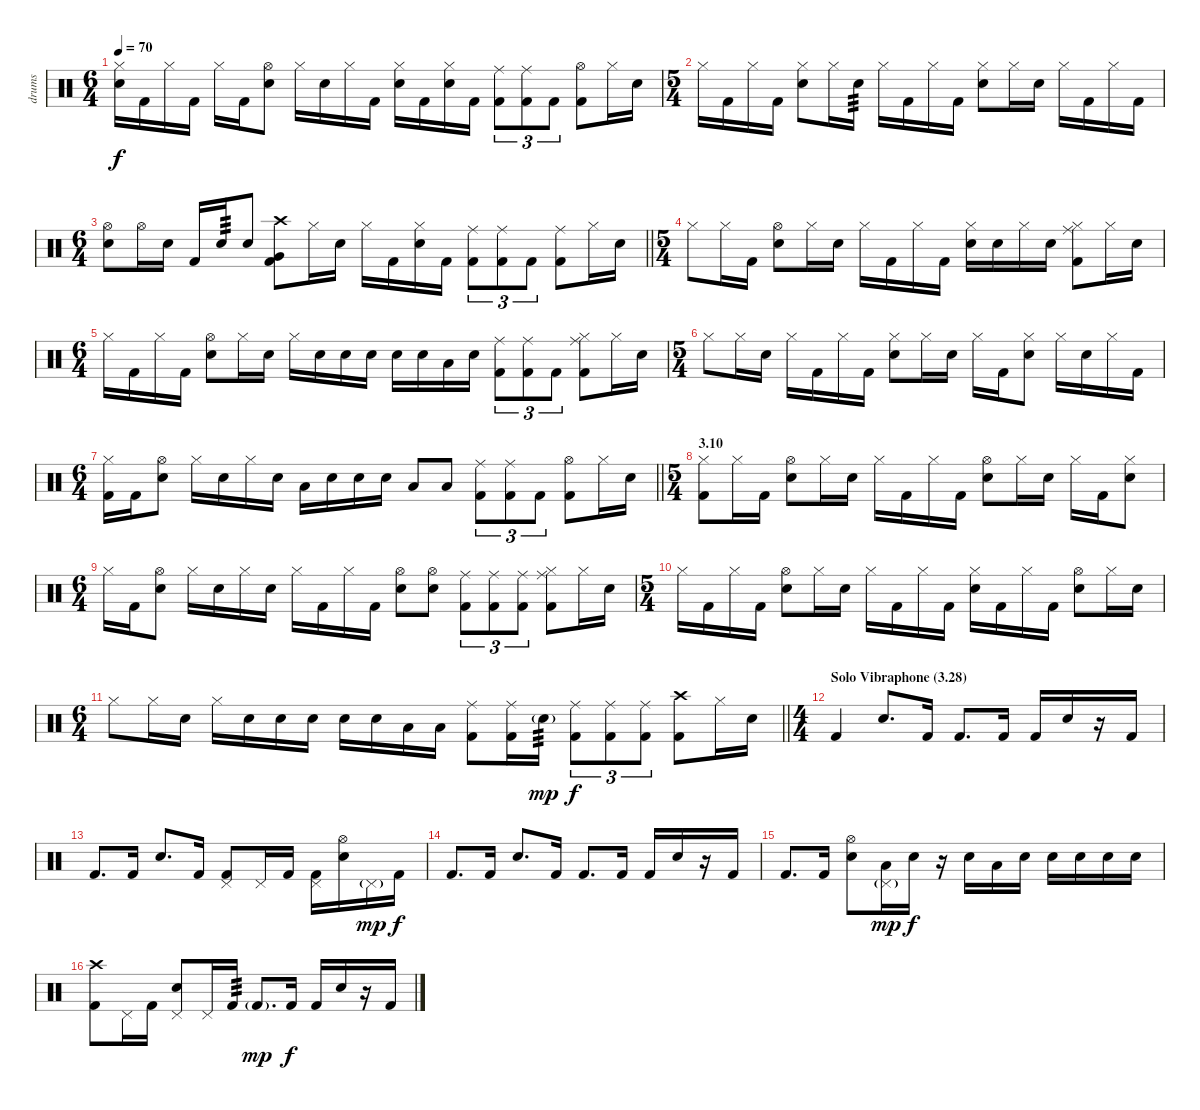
\track ("drums" "drums") {instrument percussion}
\staff {score}
\articulation defaults
\ts (6 4)
\tempo 70
\clef neutral
\ks c
("Hi-Hat (closed)" "Electric Snare (hit)").16{dy f} "Kick (hit) 2".16 "Hi-Hat (closed)".16 "Kick (hit) 2".16 "Hi-Hat (closed)".16 "Kick (hit) 2".16 ("Hi-Hat (open)" "Electric Snare (hit)").8 "Hi-Hat (closed)".16 "Electric Snare (hit)".16 "Hi-Hat (closed)".16 "Kick (hit) 2".16 ("Hi-Hat (closed)" "Electric Snare (hit)").16 "Kick (hit) 2".16 ("Hi-Hat (closed)" "Electric Snare (hit)").16 "Kick (hit) 2".16 ("Ride (middle)" "Kick (hit) 2").8{tu (3 2)} ("Ride (middle)" "Kick (hit) 2").8{tu (3 2)} "Kick (hit) 2".8{tu (3 2)} ("Hi-Hat (open)" "Kick (hit) 2").8 "Hi-Hat (closed)".16 "Electric Snare (hit)".16 |
\ts (5 4)
"Hi-Hat (closed)".16 "Kick (hit) 2".16 "Hi-Hat (closed)".16 "Kick (hit) 2".16 ("Hi-Hat (closed)" "Electric Snare (hit)").8 "Hi-Hat (closed)".16 "Electric Snare (hit)".16{tp 3} "Hi-Hat (closed)".16 "Kick (hit) 2".16 "Hi-Hat (closed)".16 "Kick (hit) 2".16 ("Hi-Hat (closed)" "Electric Snare (hit)").8 "Hi-Hat (closed)".16 "Electric Snare (hit)".16 "Hi-Hat (closed)".16 "Kick (hit) 2".16 "Hi-Hat (closed)".16 "Kick (hit) 2".16 |
\ts (6 4)
\barLineRight lightlight
("Hi-Hat (open)" "Electric Snare (hit)").8 "Hi-Hat (open)".16 "Electric Snare (hit)".16 "Kick (hit) 2".16 "Electric Snare (hit)".16{tp 3} "Electric Snare (hit)".8 ("Crash high (hit)" "Very Low Tom (hit)" "Kick (hit) 2").8 "Hi-Hat (closed)".16 "Electric Snare (hit)".16 "Hi-Hat (closed)".16 "Kick (hit) 2".16 ("Hi-Hat (closed)" "Electric Snare (hit)").16 "Kick (hit) 2".16 ("Ride (middle)" "Kick (hit) 2").8{tu (3 2)} ("Ride (middle)" "Kick (hit) 2").8{tu (3 2)} "Kick (hit) 2".8{tu (3 2)} ("Ride (middle)" "Kick (hit) 2").8 "Hi-Hat (closed)".16 "Electric Snare (hit)".16 |
\ts (5 4)
"Hi-Hat (closed)".8 "Hi-Hat (closed)".16 "Kick (hit) 2".16 ("Hi-Hat (open)" "Electric Snare (hit)").8 "Hi-Hat (closed)".16 "Electric Snare (hit)".16 "Hi-Hat (closed)".16 "Kick (hit) 2".16 "Hi-Hat (closed)".16 "Kick (hit) 2".16 ("Hi-Hat (closed)" "Electric Snare (hit)").16 "Electric Snare (hit)".16 "Hi-Hat (closed)".16 "Electric Snare (hit)".16 ("Ride (middle)" "Hi-Hat (closed)" "Kick (hit) 2").8 "Hi-Hat (closed)".16 "Electric Snare (hit)".16 |
\ts (6 4)
"Hi-Hat (closed)".16 "Kick (hit) 2".16 "Hi-Hat (closed)".16 "Kick (hit) 2".16 ("Hi-Hat (open)" "Electric Snare (hit)").8 "Hi-Hat (closed)".16 "Electric Snare (hit)".16 "Hi-Hat (closed)".16 "Electric Snare (hit)".16 "Electric Snare (hit)".16 "Electric Snare (hit)".16 "Electric Snare (hit)".16 "Electric Snare (hit)".16 "Low Tom (hit)".16 "Electric Snare (hit)".16 ("Ride (middle)" "Kick (hit) 2").8{tu (3 2)} ("Ride (middle)" "Kick (hit) 2").8{tu (3 2)} "Kick (hit) 2".8{tu (3 2)} ("Ride (middle)" "Hi-Hat (closed)" "Kick (hit) 2").8 "Hi-Hat (closed)".16 "Electric Snare (hit)".16 |
\ts (5 4)
"Hi-Hat (closed)".8 "Hi-Hat (closed)".16 "Electric Snare (hit)".16 "Hi-Hat (closed)".16 "Kick (hit) 2".16 "Hi-Hat (closed)".16 "Kick (hit) 2".16 ("Hi-Hat (closed)" "Electric Snare (hit)").8 "Hi-Hat (closed)".16 "Electric Snare (hit)".16 "Hi-Hat (closed)".16 "Kick (hit) 2".16 ("Hi-Hat (closed)" "Electric Snare (hit)").8 "Hi-Hat (closed)".16 "Electric Snare (hit)".16 "Hi-Hat (closed)".16 "Kick (hit) 2".16 |
\ts (6 4)
\barLineRight lightlight
("Hi-Hat (closed)" "Kick (hit) 2").16 "Kick (hit) 2".16 ("Hi-Hat (open)" "Electric Snare (hit)").8 "Hi-Hat (closed)".16 "Electric Snare (hit)".16 "Hi-Hat (closed)".16 "Electric Snare (hit)".16 "Low Tom (hit)".16 "Electric Snare (hit)".16 "Electric Snare (hit)".16 "Electric Snare (hit)".16 "Low Tom (hit)".8 "Low Tom (hit)".8 ("Ride (middle)" "Kick (hit) 2").8{tu (3 2)} ("Ride (middle)" "Kick (hit) 2").8{tu (3 2)} "Kick (hit) 2".8{tu (3 2)} ("Hi-Hat (open)" "Kick (hit) 2").8 "Hi-Hat (closed)".16 "Electric Snare (hit)".16 |
\ts (5 4)
\section ("" "3.10")
("Hi-Hat (closed)" "Kick (hit) 2").8 "Hi-Hat (closed)".16 "Kick (hit) 2".16 ("Hi-Hat (open)" "Electric Snare (hit)").8 "Hi-Hat (closed)".16 "Electric Snare (hit)".16 "Hi-Hat (closed)".16 "Kick (hit) 2".16 "Hi-Hat (closed)".16 "Kick (hit) 2".16 ("Hi-Hat (open)" "Electric Snare (hit)").8 "Hi-Hat (closed)".16 "Electric Snare (hit)".16 "Hi-Hat (closed)".16 "Kick (hit) 2".16 ("Hi-Hat (closed)" "Electric Snare (hit)").8 |
\ts (6 4)
"Hi-Hat (closed)".16 "Kick (hit) 2".16 ("Hi-Hat (open)" "Electric Snare (hit)").8 "Hi-Hat (closed)".16 "Electric Snare (hit)".16 "Hi-Hat (closed)".16 "Electric Snare (hit)".16 "Hi-Hat (closed)".16 "Kick (hit) 2".16 "Hi-Hat (closed)".16 "Kick (hit) 2".16 ("Hi-Hat (open)" "Electric Snare (hit)").8 ("Hi-Hat (open)" "Electric Snare (hit)").8 ("Ride (middle)" "Kick (hit) 2").8{tu (3 2)} ("Ride (middle)" "Kick (hit) 2").8{tu (3 2)} ("Ride (middle)" "Kick (hit) 2").8{tu (3 2)} ("Ride (middle)" "Hi-Hat (closed)" "Kick (hit) 2").8 "Hi-Hat (closed)".16 "Electric Snare (hit)".16 |
\ts (5 4)
"Hi-Hat (closed)".16 "Kick (hit) 2".16 "Hi-Hat (closed)".16 "Kick (hit) 2".16 ("Hi-Hat (open)" "Electric Snare (hit)").8 "Hi-Hat (closed)".16 "Electric Snare (hit)".16 "Hi-Hat (closed)".16 "Kick (hit) 2".16 "Hi-Hat (closed)".16 "Kick (hit) 2".16 ("Hi-Hat (closed)" "Electric Snare (hit)").16 "Kick (hit) 2".16 "Hi-Hat (closed)".16 "Kick (hit) 2".16 ("Hi-Hat (open)" "Electric Snare (hit)").8 "Hi-Hat (closed)".16 "Electric Snare (hit)".16 |
\ts (6 4)
\barLineRight lightlight "Hi-Hat (closed)".8 "Hi-Hat (closed)".16 "Electric Snare (hit)".16 "Hi-Hat (closed)".16 "Electric Snare (hit)".16 "Electric Snare (hit)".16 "Electric Snare (hit)".16 "Electric Snare (hit)".16 "Electric Snare (hit)".16 "Low Tom (hit)".16 "Low Tom (hit)".16
("Ride (middle)" "Kick (hit) 2").8 ("Ride (middle)" "Kick (hit) 2").16 "Electric Snare (hit)"{g}.16{tp 3 dy mp} ("Ride (middle)" "Kick (hit) 2").8{tu (3 2) dy f} ("Ride (middle)" "Kick (hit) 2").8{tu (3 2)} ("Ride (middle)" "Kick (hit) 2").8{tu (3 2)} ("Crash high (hit)" "Kick (hit) 2").8 "Hi-Hat (closed)".16 "Electric Snare (hit)".16 |
\ts (4 4)
\section ("" "Solo Vibraphone (3.28)")
"Kick (hit) 2".4 "Electric Snare (hit)".8{d} "Kick (hit) 2".16 "Kick (hit) 2".8{d} "Kick (hit) 2".16 "Kick (hit) 2".16 "Electric Snare (hit)".16 r.16 "Kick (hit) 2".16 |
"Kick (hit) 2".8{d} "Kick (hit) 2".16 "Electric Snare (hit)".8{d} "Kick (hit) 2".16 ("Pedal Hi-Hat (hit)" "Kick (hit) 2").8 "Pedal Hi-Hat (hit)".16 "Kick (hit) 2".16 ("Pedal Hi-Hat (hit)" "Kick (hit) 2").16 ("Hi-Hat (open)" "Electric Snare (hit)").16 "Pedal Hi-Hat (hit)"{g}.16{dy mp} "Kick (hit) 2".16{dy f} |
"Kick (hit) 2".8{d} "Kick (hit) 2".16 "Electric Snare (hit)".8{d} "Kick (hit) 2".16 "Kick (hit) 2".8{d} "Kick (hit) 2".16 "Kick (hit) 2".16 "Electric Snare (hit)".16 r.16 "Kick (hit) 2".16 |
"Kick (hit) 2".8{d} "Kick (hit) 2".16 ("Hi-Hat (open)" "Electric Snare (hit)").8 ("Pedal Hi-Hat (hit)"{g} "Low Tom (hit)").16{dy mp} "Electric Snare (hit)".16{dy f} r.16 "Electric Snare (hit)".16 "Low Tom (hit)".16 "Electric Snare (hit)".16 "Electric Snare (hit)".16 "Electric Snare (hit)".16 "Electric Snare (hit)".16 "Electric Snare (hit)".16 |
("Crash high (hit)" "Kick (hit) 2").8 "Pedal Hi-Hat (hit)".16 "Kick (hit) 2".16 ("Pedal Hi-Hat (hit)" "Electric Snare (hit)").8 "Pedal Hi-Hat (hit)".16 "Kick (hit) 2".16{tp 3} "Kick (hit) 2"{g}.8{d dy mp} "Kick (hit) 2".16{dy f} "Kick (hit) 2".16 "Electric Snare (hit)".16 r.16 "Kick (hit) 2".16
